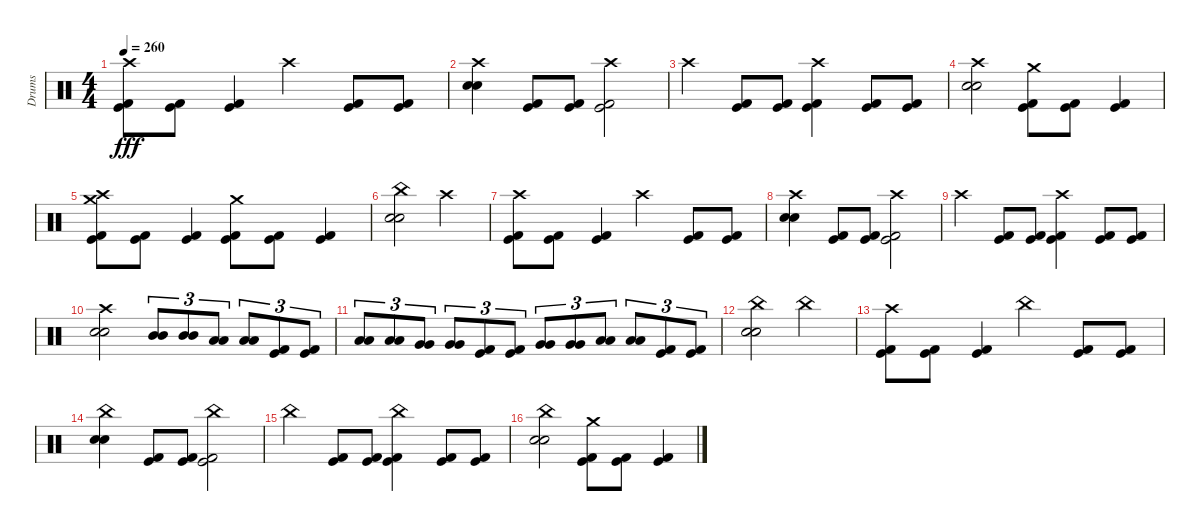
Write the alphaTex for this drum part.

\track ("Drums" "Drums") {instrument percussion}
\staff {score}
\articulation defaults
\ts (4 4)
\tempo 260
\clef neutral
\ks c
("Kick (hit)" "Kick (hit) 2" "Crash high (hit)").8{dy fff} ("Kick (hit)" "Kick (hit) 2").8 ("Kick (hit)" "Kick (hit) 2").4 "Crash high (hit)".4 ("Kick (hit)" "Kick (hit) 2").8 ("Kick (hit)" "Kick (hit) 2").8 |
("Electric Snare (hit)" "Electric Snare (hit)" "Crash high (hit)").4 ("Kick (hit)" "Kick (hit) 2").8 ("Kick (hit)" "Kick (hit) 2").8 ("Kick (hit)" "Kick (hit) 2" "Crash high (hit)").2 |
"Crash high (hit)".4 ("Kick (hit)" "Kick (hit) 2").8 ("Kick (hit)" "Kick (hit) 2").8 ("Kick (hit)" "Kick (hit) 2" "Crash high (hit)").4 ("Kick (hit)" "Kick (hit) 2").8 ("Kick (hit)" "Kick (hit) 2").8 |
("Electric Snare (hit)" "Electric Snare (hit)" "Crash high (hit)").2 ("Kick (hit)" "Kick (hit) 2" "Crash medium (hit)").8 ("Kick (hit)" "Kick (hit) 2").8 ("Kick (hit)" "Kick (hit) 2").4 |
("Kick (hit)" "Kick (hit) 2" "Crash high (hit)" "Crash medium (hit)").8 ("Kick (hit)" "Kick (hit) 2").8 ("Kick (hit)" "Kick (hit) 2").4 ("Kick (hit)" "Kick (hit) 2" "Crash medium (hit)").8 ("Kick (hit)" "Kick (hit) 2").8 ("Kick (hit)" "Kick (hit) 2").4 |
("Electric Snare (hit)" "Electric Snare (hit)" "China (hit)").2 "Crash high (hit)".2 |
("Kick (hit)" "Kick (hit) 2" "Crash high (hit)").8 ("Kick (hit)" "Kick (hit) 2").8 ("Kick (hit)" "Kick (hit) 2").4 "Crash high (hit)".4 ("Kick (hit)" "Kick (hit) 2").8 ("Kick (hit)" "Kick (hit) 2").8 |
("Electric Snare (hit)" "Electric Snare (hit)" "Crash high (hit)").4 ("Kick (hit)" "Kick (hit) 2").8 ("Kick (hit)" "Kick (hit) 2").8 ("Kick (hit)" "Kick (hit) 2" "Crash high (hit)").2 |
"Crash high (hit)".4 ("Kick (hit)" "Kick (hit) 2").8 ("Kick (hit)" "Kick (hit) 2").8 ("Kick (hit)" "Kick (hit) 2" "Crash high (hit)").4 ("Kick (hit)" "Kick (hit) 2").8 ("Kick (hit)" "Kick (hit) 2").8 |
("Electric Snare (hit)" "Electric Snare (hit)" "Crash high (hit)").2 ("Mid Tom (hit)" "Mid Tom (hit)").8{tu (3 2)} ("Mid Tom (hit)" "Mid Tom (hit)").8{tu (3 2)} ("Low Tom (hit)" "Low Tom (hit)").8{tu (3 2)} ("Low Tom (hit)" "Low Tom (hit)").8{tu (3 2)} ("Kick (hit)" "Kick (hit) 2").8{tu (3 2)} ("Kick (hit)" "Kick (hit) 2").8{tu (3 2)} |
("Low Tom (hit)" "Low Tom (hit)").8{tu (3 2)} ("Low Tom (hit)" "Low Tom (hit)").8{tu (3 2)} ("Very Low Tom (hit)" "Very Low Tom (hit)").8{tu (3 2)} ("Very Low Tom (hit)" "Very Low Tom (hit)").8{tu (3 2)} ("Kick (hit)" "Kick (hit) 2").8{tu (3 2)} ("Kick (hit)" "Kick (hit) 2").8{tu (3 2)} ("Very Low Tom (hit)" "Very Low Tom (hit)").8{tu (3 2)} ("Very Low Tom (hit)" "Very Low Tom (hit)").8{tu (3 2)} ("Low Floor Tom (hit)" "Low Floor Tom (hit)").8{tu (3 2)} ("Low Floor Tom (hit)" "Low Floor Tom (hit)").8{tu (3 2)} ("Kick (hit)" "Kick (hit) 2").8{tu (3 2)} ("Kick (hit)" "Kick (hit) 2").8{tu (3 2)} |
("Electric Snare (hit)" "Electric Snare (hit)" "China (hit)").2 "China (hit)".2 |
("Kick (hit)" "Kick (hit) 2" "Crash high (hit)").8 ("Kick (hit)" "Kick (hit) 2").8 ("Kick (hit)" "Kick (hit) 2").4 "China (hit)".4 ("Kick (hit)" "Kick (hit) 2").8 ("Kick (hit)" "Kick (hit) 2").8 |
("Electric Snare (hit)" "Electric Snare (hit)" "China (hit)").4 ("Kick (hit)" "Kick (hit) 2").8 ("Kick (hit)" "Kick (hit) 2").8 ("Kick (hit)" "Kick (hit) 2" "China (hit)").2 |
"China (hit)".4 ("Kick (hit)" "Kick (hit) 2").8 ("Kick (hit)" "Kick (hit) 2").8 ("Kick (hit)" "Kick (hit) 2" "China (hit)").4 ("Kick (hit)" "Kick (hit) 2").8 ("Kick (hit)" "Kick (hit) 2").8 |
("Electric Snare (hit)" "Electric Snare (hit)" "China (hit)").2 ("Kick (hit)" "Kick (hit) 2" "Crash medium (hit)").8 ("Kick (hit)" "Kick (hit) 2").8 ("Kick (hit)" "Kick (hit) 2").4
